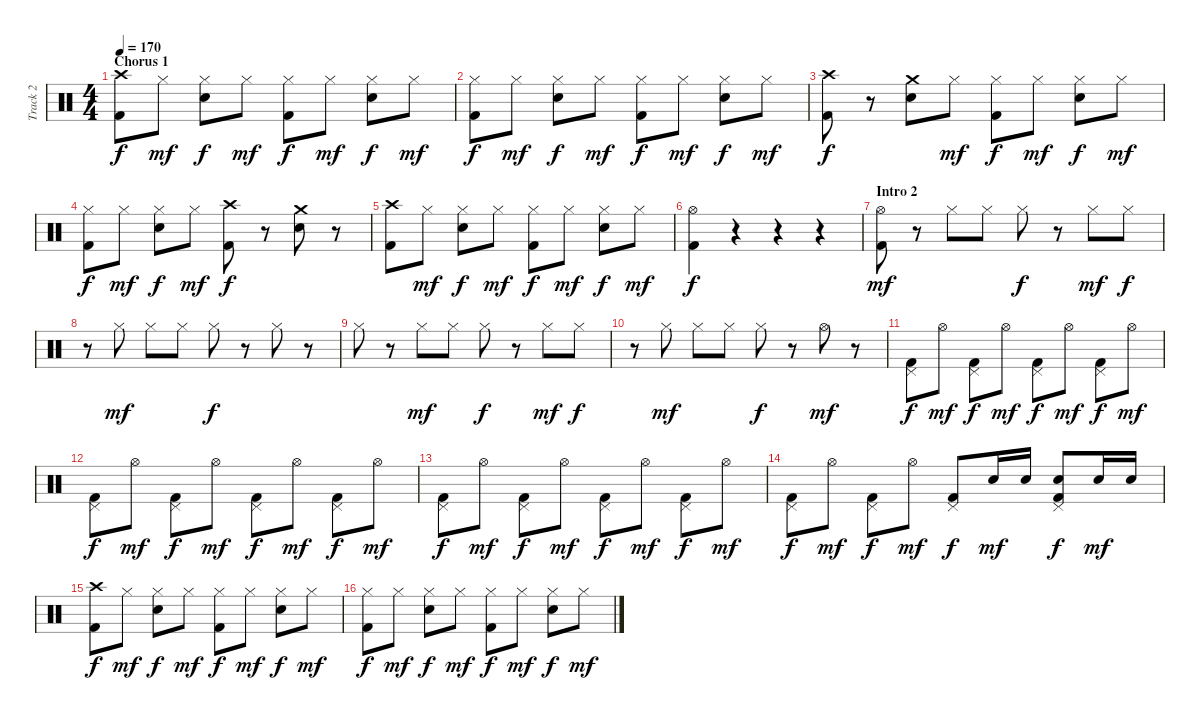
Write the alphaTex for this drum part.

\track ("Track 2" "Track 2") {instrument percussion}
\staff {score}
\articulation defaults
\ts (4 4)
\section ("" "Chorus 1")
\tempo 170
\clef neutral
\ks c
("Crash high (hit)" "Kick (hit) 2").8{dy f} "Hi-Hat (closed)".8{dy mf} ("Hi-Hat (closed)" "Electric Snare (hit)").8{dy f} "Hi-Hat (closed)".8{dy mf} ("Hi-Hat (closed)" "Kick (hit) 2").8{dy f} "Hi-Hat (closed)".8{dy mf} ("Hi-Hat (closed)" "Electric Snare (hit)").8{dy f} "Hi-Hat (closed)".8{dy mf} |
("Hi-Hat (closed)" "Kick (hit) 2").8{dy f} "Hi-Hat (closed)".8{dy mf} ("Hi-Hat (closed)" "Electric Snare (hit)").8{dy f} "Hi-Hat (closed)".8{dy mf} ("Hi-Hat (closed)" "Kick (hit) 2").8{dy f} "Hi-Hat (closed)".8{dy mf} ("Hi-Hat (closed)" "Electric Snare (hit)").8{dy f} "Hi-Hat (closed)".8{dy mf} |
("Crash high (hit)" "Kick (hit) 2").8{dy f} r.8 ("Crash medium (hit)" "Electric Snare (hit)").8 "Hi-Hat (closed)".8{dy mf} ("Hi-Hat (closed)" "Kick (hit) 2").8{dy f} "Hi-Hat (closed)".8{dy mf} ("Hi-Hat (closed)" "Electric Snare (hit)").8{dy f} "Hi-Hat (closed)".8{dy mf} |
("Hi-Hat (closed)" "Kick (hit) 2").8{dy f} "Hi-Hat (closed)".8{dy mf} ("Hi-Hat (closed)" "Electric Snare (hit)").8{dy f} "Hi-Hat (closed)".8{dy mf} ("Crash high (hit)" "Kick (hit) 2").8{dy f} r.8 ("Crash medium (hit)" "Electric Snare (hit)").8 r.8 |
("Crash high (hit)" "Kick (hit) 2").8 "Hi-Hat (closed)".8{dy mf} ("Hi-Hat (closed)" "Electric Snare (hit)").8{dy f} "Hi-Hat (closed)".8{dy mf} ("Hi-Hat (closed)" "Kick (hit) 2").8{dy f} "Hi-Hat (closed)".8{dy mf} ("Hi-Hat (closed)" "Electric Snare (hit)").8{dy f} "Hi-Hat (closed)".8{dy mf} |
("Hi-Hat (open)" "Kick (hit) 2").4{dy f} r.4 r.4 r.4 |
\section ("" "Intro 2")
("Hi-Hat (open)" "Kick (hit) 2").8{dy mf} r.8 "Hi-Hat (closed)".8 "Hi-Hat (closed)".8 "Hi-Hat (closed)".8{dy f} r.8 "Hi-Hat (closed)".8{dy mf} "Hi-Hat (closed)".8{dy f} |
r.8 "Hi-Hat (closed)".8{dy mf} "Hi-Hat (closed)".8 "Hi-Hat (closed)".8 "Hi-Hat (closed)".8{dy f} r.8 "Hi-Hat (closed)".8 r.8 |
"Hi-Hat (closed)".8 r.8 "Hi-Hat (closed)".8{dy mf} "Hi-Hat (closed)".8 "Hi-Hat (closed)".8{dy f} r.8 "Hi-Hat (closed)".8{dy mf} "Hi-Hat (closed)".8{dy f} |
r.8 "Hi-Hat (closed)".8{dy mf} "Hi-Hat (closed)".8 "Hi-Hat (closed)".8 "Hi-Hat (closed)".8{dy f} r.8 "Hi-Hat (open)".8{dy mf} r.8 |
("Pedal Hi-Hat (hit)" "Kick (hit) 2").8{dy f} "Hi-Hat (open)".8{dy mf} ("Pedal Hi-Hat (hit)" "Kick (hit) 2").8{dy f} "Hi-Hat (open)".8{dy mf} ("Pedal Hi-Hat (hit)" "Kick (hit) 2").8{dy f} "Hi-Hat (open)".8{dy mf} ("Pedal Hi-Hat (hit)" "Kick (hit) 2").8{dy f} "Hi-Hat (open)".8{dy mf} |
("Pedal Hi-Hat (hit)" "Kick (hit) 2").8{dy f} "Hi-Hat (open)".8{dy mf} ("Pedal Hi-Hat (hit)" "Kick (hit) 2").8{dy f} "Hi-Hat (open)".8{dy mf} ("Pedal Hi-Hat (hit)" "Kick (hit) 2").8{dy f} "Hi-Hat (open)".8{dy mf} ("Pedal Hi-Hat (hit)" "Kick (hit) 2").8{dy f} "Hi-Hat (open)".8{dy mf} |
("Pedal Hi-Hat (hit)" "Kick (hit) 2").8{dy f} "Hi-Hat (open)".8{dy mf} ("Pedal Hi-Hat (hit)" "Kick (hit) 2").8{dy f} "Hi-Hat (open)".8{dy mf} ("Pedal Hi-Hat (hit)" "Kick (hit) 2").8{dy f} "Hi-Hat (open)".8{dy mf} ("Pedal Hi-Hat (hit)" "Kick (hit) 2").8{dy f} "Hi-Hat (open)".8{dy mf} |
("Pedal Hi-Hat (hit)" "Kick (hit) 2").8{dy f} "Hi-Hat (open)".8{dy mf} ("Pedal Hi-Hat (hit)" "Kick (hit) 2").8{dy f} "Hi-Hat (open)".8{dy mf} ("Pedal Hi-Hat (hit)" "Kick (hit) 2").8{dy f} "Electric Snare (hit)".16{dy mf} "Electric Snare (hit)".16 ("Pedal Hi-Hat (hit)" "Electric Snare (hit)" "Kick (hit) 2").8{dy f} "Electric Snare (hit)".16{dy mf} "Electric Snare (hit)".16 |
("Crash high (hit)" "Kick (hit) 2").8{dy f} "Hi-Hat (closed)".8{dy mf} ("Hi-Hat (closed)" "Electric Snare (hit)").8{dy f} "Hi-Hat (closed)".8{dy mf} ("Hi-Hat (closed)" "Kick (hit) 2").8{dy f} "Hi-Hat (closed)".8{dy mf} ("Hi-Hat (closed)" "Electric Snare (hit)").8{dy f} "Hi-Hat (closed)".8{dy mf} |
("Hi-Hat (closed)" "Kick (hit) 2").8{dy f} "Hi-Hat (closed)".8{dy mf} ("Hi-Hat (closed)" "Electric Snare (hit)").8{dy f} "Hi-Hat (closed)".8{dy mf} ("Hi-Hat (closed)" "Kick (hit) 2").8{dy f} "Hi-Hat (closed)".8{dy mf} ("Hi-Hat (closed)" "Electric Snare (hit)").8{dy f} "Hi-Hat (closed)".8{dy mf}
